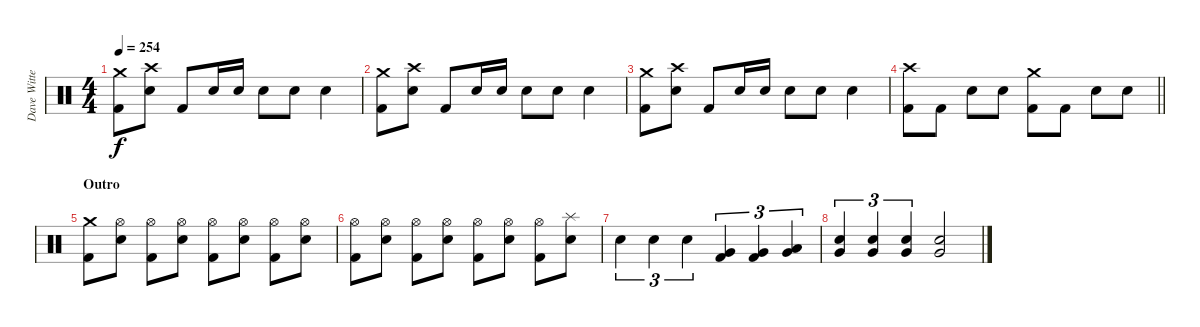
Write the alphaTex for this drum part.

\track ("Dave Witte (Drums)" "Dave Witte") {instrument percussion}
\staff {score}
\articulation defaults
\ts (4 4)
\tempo 254
\clef neutral
\ks c
("Crash medium (hit)" "Kick (hit) 2").8{dy f} ("Crash high (hit)" "Electric Snare (hit)").8 "Kick (hit) 2".8 "Electric Snare (hit)".16 "Electric Snare (hit)".16 "Electric Snare (hit)".8 "Electric Snare (hit)".8 "Electric Snare (hit)".4 |
("Crash medium (hit)" "Kick (hit) 2").8 ("Crash high (hit)" "Electric Snare (hit)").8 "Kick (hit) 2".8 "Electric Snare (hit)".16 "Electric Snare (hit)".16 "Electric Snare (hit)".8 "Electric Snare (hit)".8 "Electric Snare (hit)".4 |
("Crash medium (hit)" "Kick (hit) 2").8 ("Crash high (hit)" "Electric Snare (hit)").8 "Kick (hit) 2".8 "Electric Snare (hit)".16 "Electric Snare (hit)".16 "Electric Snare (hit)".8 "Electric Snare (hit)".8 "Electric Snare (hit)".4 |
\barLineRight lightlight
("Crash high (hit)" "Kick (hit) 2").8 "Kick (hit) 2".8 "Electric Snare (hit)".8 "Electric Snare (hit)".8 ("Crash medium (hit)" "Kick (hit) 2").8 "Kick (hit) 2".8 "Electric Snare (hit)".8 "Electric Snare (hit)".8 |
\section ("" "Outro")
("Crash medium (hit)" "Kick (hit) 2").8 ("Hi-Hat (open)" "Electric Snare (hit)").8 ("Hi-Hat (open)" "Kick (hit) 2").8 ("Hi-Hat (open)" "Electric Snare (hit)").8 ("Hi-Hat (open)" "Kick (hit) 2").8 ("Hi-Hat (open)" "Electric Snare (hit)").8 ("Hi-Hat (open)" "Kick (hit) 2").8 ("Hi-Hat (open)" "Electric Snare (hit)").8 |
("Hi-Hat (open)" "Kick (hit) 2").8 ("Hi-Hat (open)" "Electric Snare (hit)").8 ("Hi-Hat (open)" "Kick (hit) 2").8 ("Hi-Hat (open)" "Electric Snare (hit)").8 ("Hi-Hat (open)" "Kick (hit) 2").8 ("Hi-Hat (open)" "Electric Snare (hit)").8 ("Hi-Hat (open)" "Kick (hit) 2").8 ("Splash (hit)" "Electric Snare (hit)").8 |
"Electric Snare (hit)".4{tu (3 2)} "Electric Snare (hit)".4{tu (3 2)} "Electric Snare (hit)".4{tu (3 2)} ("Very Low Tom (hit)" "Kick (hit) 2").4{tu (3 2)} ("Very Low Tom (hit)" "Kick (hit) 2").4{tu (3 2)} ("Very Low Tom (hit)" "Low Floor Tom (hit)").4{tu (3 2)} |
("Electric Snare (hit)" "Very Low Tom (hit)").4{tu (3 2)} ("Electric Snare (hit)" "Very Low Tom (hit)").4{tu (3 2)} ("Electric Snare (hit)" "Very Low Tom (hit)").4{tu (3 2)} ("Electric Snare (hit)" "Very Low Tom (hit)").2
